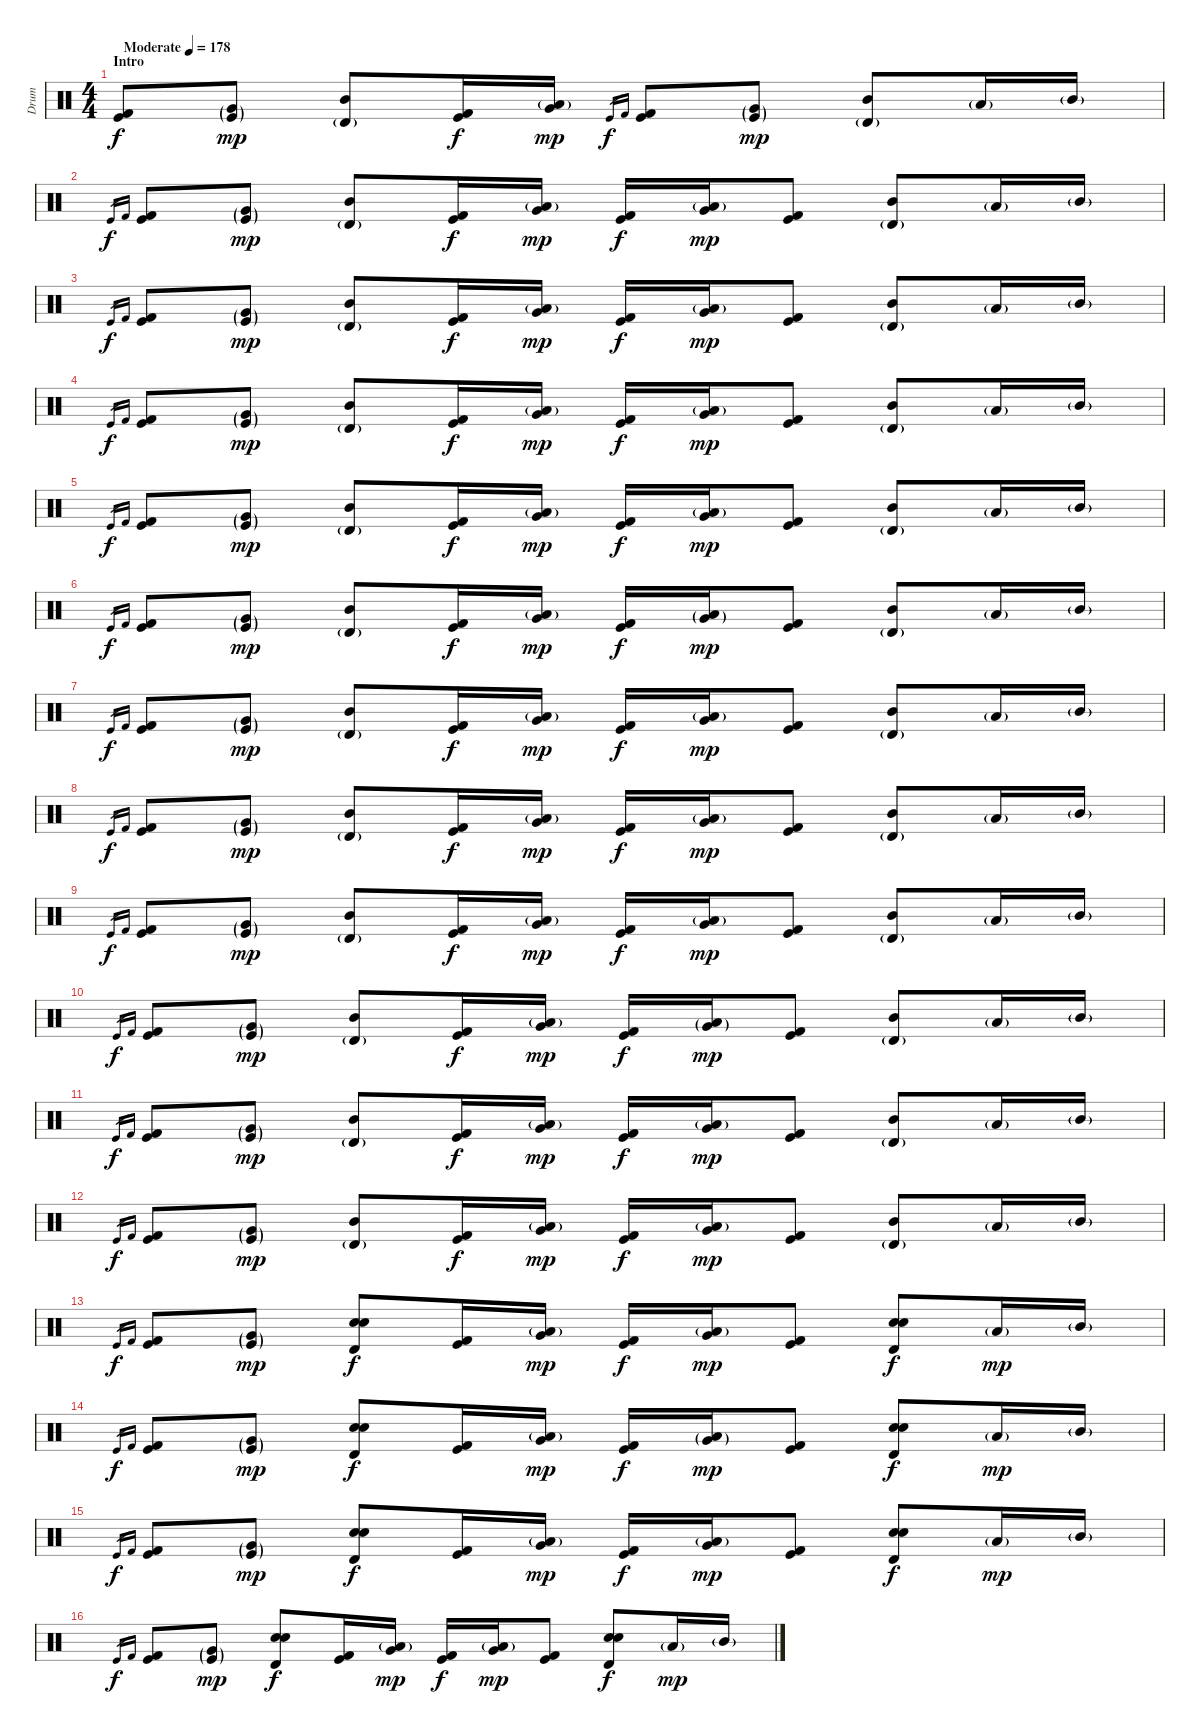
\track ("Drum" "Drum") {instrument percussion}
\staff {score}
\articulation defaults
\ts (4 4)
\section ("" "Intro")
\tempo (178 "Moderate")
\clef neutral
\ks c
("Kick (hit)" "Kick (hit) 2").8{dy f} ("Very Low Tom (hit)"{g} "Kick (hit)"{g}).8{dy mp} ("Timbale high (hit)"{g} "Mid Tom (hit)").8 ("Kick (hit)" "Kick (hit) 2").16{dy f} ("Low Tom (hit)"{g} "Very Low Tom (hit)").16{dy mp} "Kick (hit)".16{gr dy f} "Kick (hit) 2".16{gr} ("Kick (hit)" "Kick (hit) 2").8 ("Very Low Tom (hit)"{g} "Kick (hit)"{g}).8{dy mp} ("Timbale high (hit)"{g} "Mid Tom (hit)").8 "Low Tom (hit)"{g}.16 "Mid Tom (hit)"{g}.16 |
"Kick (hit)".16{gr dy f} "Kick (hit) 2".16{gr} ("Kick (hit)" "Kick (hit) 2").8 ("Very Low Tom (hit)"{g} "Kick (hit)"{g}).8{dy mp} ("Timbale high (hit)"{g} "Mid Tom (hit)").8 ("Kick (hit)" "Kick (hit) 2").16{dy f} ("Low Tom (hit)"{g} "Very Low Tom (hit)").16{dy mp} ("Kick (hit)" "Kick (hit) 2").16{dy f} ("Low Tom (hit)"{g} "Very Low Tom (hit)").16{dy mp} ("Kick (hit)" "Kick (hit) 2").8 ("Timbale high (hit)"{g} "Mid Tom (hit)").8 "Low Tom (hit)"{g}.16 "Mid Tom (hit)"{g}.16 |
"Kick (hit)".16{gr dy f} "Kick (hit) 2".16{gr} ("Kick (hit)" "Kick (hit) 2").8 ("Very Low Tom (hit)"{g} "Kick (hit)"{g}).8{dy mp} ("Timbale high (hit)"{g} "Mid Tom (hit)").8 ("Kick (hit)" "Kick (hit) 2").16{dy f} ("Low Tom (hit)"{g} "Very Low Tom (hit)").16{dy mp} ("Kick (hit)" "Kick (hit) 2").16{dy f} ("Low Tom (hit)"{g} "Very Low Tom (hit)").16{dy mp} ("Kick (hit)" "Kick (hit) 2").8 ("Timbale high (hit)"{g} "Mid Tom (hit)").8 "Low Tom (hit)"{g}.16 "Mid Tom (hit)"{g}.16 |
"Kick (hit)".16{gr dy f} "Kick (hit) 2".16{gr} ("Kick (hit)" "Kick (hit) 2").8 ("Very Low Tom (hit)"{g} "Kick (hit)"{g}).8{dy mp} ("Timbale high (hit)"{g} "Mid Tom (hit)").8 ("Kick (hit)" "Kick (hit) 2").16{dy f} ("Low Tom (hit)"{g} "Very Low Tom (hit)").16{dy mp} ("Kick (hit)" "Kick (hit) 2").16{dy f} ("Low Tom (hit)"{g} "Very Low Tom (hit)").16{dy mp} ("Kick (hit)" "Kick (hit) 2").8 ("Timbale high (hit)"{g} "Mid Tom (hit)").8 "Low Tom (hit)"{g}.16 "Mid Tom (hit)"{g}.16 |
"Kick (hit)".16{gr dy f} "Kick (hit) 2".16{gr} ("Kick (hit)" "Kick (hit) 2").8 ("Very Low Tom (hit)"{g} "Kick (hit)"{g}).8{dy mp} ("Timbale high (hit)"{g} "Mid Tom (hit)").8 ("Kick (hit)" "Kick (hit) 2").16{dy f} ("Low Tom (hit)"{g} "Very Low Tom (hit)").16{dy mp} ("Kick (hit)" "Kick (hit) 2").16{dy f} ("Low Tom (hit)"{g} "Very Low Tom (hit)").16{dy mp} ("Kick (hit)" "Kick (hit) 2").8 ("Timbale high (hit)"{g} "Mid Tom (hit)").8 "Low Tom (hit)"{g}.16 "Mid Tom (hit)"{g}.16 |
"Kick (hit)".16{gr dy f} "Kick (hit) 2".16{gr} ("Kick (hit)" "Kick (hit) 2").8 ("Very Low Tom (hit)"{g} "Kick (hit)"{g}).8{dy mp} ("Timbale high (hit)"{g} "Mid Tom (hit)").8 ("Kick (hit)" "Kick (hit) 2").16{dy f} ("Low Tom (hit)"{g} "Very Low Tom (hit)").16{dy mp} ("Kick (hit)" "Kick (hit) 2").16{dy f} ("Low Tom (hit)"{g} "Very Low Tom (hit)"{g}).16{dy mp} ("Kick (hit)" "Kick (hit) 2").8 ("Timbale high (hit)"{g} "Mid Tom (hit)").8 "Low Tom (hit)"{g}.16 "Mid Tom (hit)"{g}.16 |
"Kick (hit)".16{gr dy f} "Kick (hit) 2".16{gr} ("Kick (hit)" "Kick (hit) 2").8 ("Very Low Tom (hit)"{g} "Kick (hit)"{g}).8{dy mp} ("Timbale high (hit)"{g} "Mid Tom (hit)").8 ("Kick (hit)" "Kick (hit) 2").16{dy f} ("Low Tom (hit)"{g} "Very Low Tom (hit)").16{dy mp} ("Kick (hit)" "Kick (hit) 2").16{dy f} ("Low Tom (hit)"{g} "Very Low Tom (hit)").16{dy mp} ("Kick (hit)" "Kick (hit) 2").8 ("Timbale high (hit)"{g} "Mid Tom (hit)").8 "Low Tom (hit)"{g}.16 "Mid Tom (hit)"{g}.16 |
"Kick (hit)".16{gr dy f} "Kick (hit) 2".16{gr} ("Kick (hit)" "Kick (hit) 2").8 ("Very Low Tom (hit)"{g} "Kick (hit)"{g}).8{dy mp} ("Timbale high (hit)"{g} "Mid Tom (hit)").8 ("Kick (hit)" "Kick (hit) 2").16{dy f} ("Low Tom (hit)"{g} "Very Low Tom (hit)").16{dy mp} ("Kick (hit)" "Kick (hit) 2").16{dy f} ("Low Tom (hit)"{g} "Very Low Tom (hit)").16{dy mp} ("Kick (hit)" "Kick (hit) 2").8 ("Timbale high (hit)"{g} "Mid Tom (hit)").8 "Low Tom (hit)"{g}.16 "Mid Tom (hit)"{g}.16 |
"Kick (hit)".16{gr dy f} "Kick (hit) 2".16{gr} ("Kick (hit)" "Kick (hit) 2").8 ("Very Low Tom (hit)"{g} "Kick (hit)"{g}).8{dy mp} ("Timbale high (hit)"{g} "Mid Tom (hit)").8 ("Kick (hit)" "Kick (hit) 2").16{dy f} ("Low Tom (hit)"{g} "Very Low Tom (hit)").16{dy mp} ("Kick (hit)" "Kick (hit) 2").16{dy f} ("Low Tom (hit)"{g} "Very Low Tom (hit)").16{dy mp} ("Kick (hit)" "Kick (hit) 2").8 ("Timbale high (hit)"{g} "Mid Tom (hit)").8 "Low Tom (hit)"{g}.16 "Mid Tom (hit)"{g}.16 |
"Kick (hit)".16{gr dy f} "Kick (hit) 2".16{gr} ("Kick (hit)" "Kick (hit) 2").8 ("Very Low Tom (hit)"{g} "Kick (hit)"{g}).8{dy mp} ("Timbale high (hit)"{g} "Mid Tom (hit)").8 ("Kick (hit)" "Kick (hit) 2").16{dy f} ("Low Tom (hit)"{g} "Very Low Tom (hit)").16{dy mp} ("Kick (hit)" "Kick (hit) 2").16{dy f} ("Low Tom (hit)"{g} "Very Low Tom (hit)"{g}).16{dy mp} ("Kick (hit)" "Kick (hit) 2").8 ("Timbale high (hit)"{g} "Mid Tom (hit)").8 "Low Tom (hit)"{g}.16 "Mid Tom (hit)"{g}.16 |
"Kick (hit)".16{gr dy f} "Kick (hit) 2".16{gr} ("Kick (hit)" "Kick (hit) 2").8 ("Very Low Tom (hit)"{g} "Kick (hit)"{g}).8{dy mp} ("Timbale high (hit)"{g} "Mid Tom (hit)").8 ("Kick (hit)" "Kick (hit) 2").16{dy f} ("Low Tom (hit)"{g} "Very Low Tom (hit)").16{dy mp} ("Kick (hit)" "Kick (hit) 2").16{dy f} ("Low Tom (hit)"{g} "Very Low Tom (hit)").16{dy mp} ("Kick (hit)" "Kick (hit) 2").8 ("Timbale high (hit)"{g} "Mid Tom (hit)").8 "Low Tom (hit)"{g}.16 "Mid Tom (hit)"{g}.16 |
"Kick (hit)".16{gr dy f} "Kick (hit) 2".16{gr} ("Kick (hit)" "Kick (hit) 2").8 ("Very Low Tom (hit)"{g} "Kick (hit)"{g}).8{dy mp} ("Timbale high (hit)"{g} "Mid Tom (hit)").8 ("Kick (hit)" "Kick (hit) 2").16{dy f} ("Low Tom (hit)"{g} "Very Low Tom (hit)").16{dy mp} ("Kick (hit)" "Kick (hit) 2").16{dy f} ("Low Tom (hit)"{g} "Very Low Tom (hit)").16{dy mp} ("Kick (hit)" "Kick (hit) 2").8 ("Timbale high (hit)"{g} "Mid Tom (hit)").8 "Low Tom (hit)"{g}.16 "Mid Tom (hit)"{g}.16 |
"Kick (hit)".16{gr dy f} "Kick (hit) 2".16{gr} ("Kick (hit)" "Kick (hit) 2").8 ("Very Low Tom (hit)"{g} "Kick (hit)"{g}).8{dy mp} ("Timbale high (hit)" "Electric Snare (hit)" "Snare (hit) 2").8{dy f} ("Kick (hit)" "Kick (hit) 2").16 ("Low Tom (hit)"{g} "Very Low Tom (hit)").16{dy mp} ("Kick (hit)" "Kick (hit) 2").16{dy f} ("Low Tom (hit)"{g} "Very Low Tom (hit)").16{dy mp} ("Kick (hit)" "Kick (hit) 2").8 ("Timbale high (hit)" "Electric Snare (hit)" "Snare (hit) 2").8{dy f} "Low Tom (hit)"{g}.16{dy mp} "Mid Tom (hit)"{g}.16 |
"Kick (hit)".16{gr dy f} "Kick (hit) 2".16{gr} ("Kick (hit)" "Kick (hit) 2").8 ("Very Low Tom (hit)"{g} "Kick (hit)"{g}).8{dy mp} ("Timbale high (hit)" "Electric Snare (hit)" "Snare (hit) 2").8{dy f} ("Kick (hit)" "Kick (hit) 2").16 ("Low Tom (hit)"{g} "Very Low Tom (hit)").16{dy mp} ("Kick (hit)" "Kick (hit) 2").16{dy f} ("Low Tom (hit)"{g} "Very Low Tom (hit)"{g}).16{dy mp} ("Kick (hit)" "Kick (hit) 2").8 ("Timbale high (hit)" "Electric Snare (hit)" "Snare (hit) 2").8{dy f} "Low Tom (hit)"{g}.16{dy mp} "Mid Tom (hit)"{g}.16 |
"Kick (hit)".16{gr dy f} "Kick (hit) 2".16{gr} ("Kick (hit)" "Kick (hit) 2").8 ("Very Low Tom (hit)"{g} "Kick (hit)"{g}).8{dy mp} ("Timbale high (hit)" "Electric Snare (hit)" "Snare (hit) 2").8{dy f} ("Kick (hit)" "Kick (hit) 2").16 ("Low Tom (hit)"{g} "Very Low Tom (hit)").16{dy mp} ("Kick (hit)" "Kick (hit) 2").16{dy f} ("Low Tom (hit)"{g} "Very Low Tom (hit)").16{dy mp} ("Kick (hit)" "Kick (hit) 2").8 ("Timbale high (hit)" "Electric Snare (hit)" "Snare (hit) 2").8{dy f} "Low Tom (hit)"{g}.16{dy mp} "Mid Tom (hit)"{g}.16 |
"Kick (hit)".16{gr dy f} "Kick (hit) 2".16{gr} ("Kick (hit)" "Kick (hit) 2").8 ("Very Low Tom (hit)"{g} "Kick (hit)"{g}).8{dy mp} ("Timbale high (hit)" "Electric Snare (hit)" "Snare (hit) 2").8{dy f} ("Kick (hit)" "Kick (hit) 2").16 ("Low Tom (hit)"{g} "Very Low Tom (hit)").16{dy mp} ("Kick (hit)" "Kick (hit) 2").16{dy f} ("Low Tom (hit)"{g} "Very Low Tom (hit)").16{dy mp} ("Kick (hit)" "Kick (hit) 2").8 ("Timbale high (hit)" "Electric Snare (hit)" "Snare (hit) 2").8{dy f} "Low Tom (hit)"{g}.16{dy mp} "Mid Tom (hit)"{g}.16
